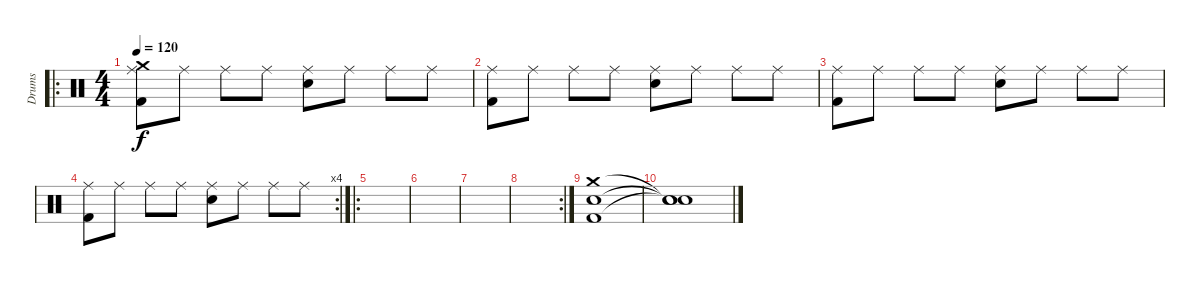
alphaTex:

\track ("Drums" "Drums") {instrument percussion}
\staff {score}
\articulation defaults
\ro
\ts (4 4)
\tempo 120
\clef neutral
\ks c
("Crash medium (hit)" "Ride (middle)" "Kick (hit) 2").8{dy f} "Ride (middle)".8 "Ride (middle)".8 "Ride (middle)".8 ("Ride (middle)" "Electric Snare (hit)").8 "Ride (middle)".8 "Ride (middle)".8 "Ride (middle)".8 |
("Ride (middle)" "Kick (hit) 2").8 "Ride (middle)".8 "Ride (middle)".8 "Ride (middle)".8 ("Ride (middle)" "Electric Snare (hit)").8 "Ride (middle)".8 "Ride (middle)".8 "Ride (middle)".8 |
("Ride (middle)" "Kick (hit) 2").8 "Ride (middle)".8 "Ride (middle)".8 "Ride (middle)".8 ("Ride (middle)" "Electric Snare (hit)").8 "Ride (middle)".8 "Ride (middle)".8 "Ride (middle)".8 |
\rc 4
("Ride (middle)" "Kick (hit) 2").8 "Ride (middle)".8 "Ride (middle)".8 "Ride (middle)".8 ("Ride (middle)" "Electric Snare (hit)").8 "Ride (middle)".8 "Ride (middle)".8 "Ride (middle)".8 |
\ro
|
|
|
\rc 2
|
("Crash medium (hit)" "Electric Snare (hit)" "Kick (hit) 2").1 |
("Snare (hit)"{t} "Snare (hit)"{t} "Snare (hit)"{t}).1
